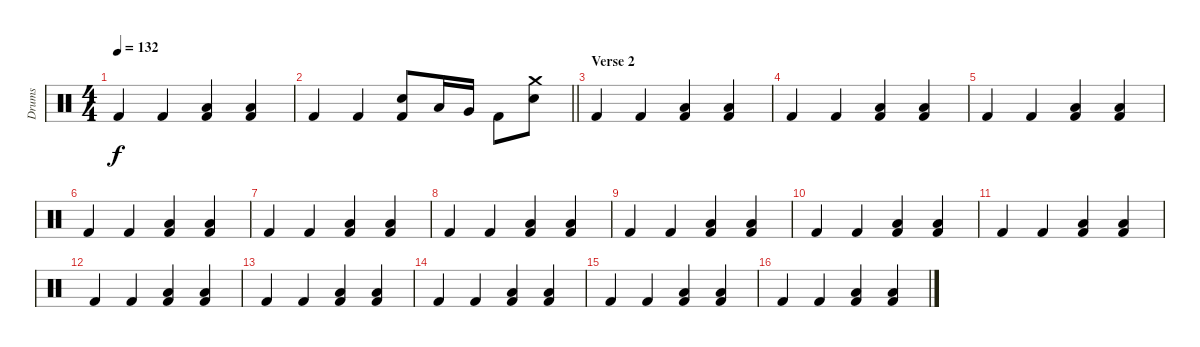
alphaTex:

\track ("Drums" "Drums") {instrument percussion}
\staff {score}
\articulation defaults
\ts (4 4)
\tempo 132
\clef neutral
\ks c "Kick (hit) 2".4{dy f} "Kick (hit) 2".4
("Low Tom (hit)" "Kick (hit) 2").4 ("Low Floor Tom (hit)" "Kick (hit) 2").4 |
\barLineRight lightlight "Kick (hit) 2".4 "Kick (hit) 2".4
("Snare (hit) 2" "Kick (hit) 2").8 "Low Floor Tom (hit)".16 "Very Low Tom (hit)".16 "Kick (hit) 2".8 ("Crash medium (hit)" "Snare (hit) 2").8 |
\section ("" "Verse 2")
"Kick (hit) 2".4 "Kick (hit) 2".4 ("Low Tom (hit)" "Kick (hit) 2").4 ("Low Floor Tom (hit)" "Kick (hit) 2").4 |
"Kick (hit) 2".4 "Kick (hit) 2".4 ("Low Tom (hit)" "Kick (hit) 2").4 ("Low Floor Tom (hit)" "Kick (hit) 2").4 |
"Kick (hit) 2".4 "Kick (hit) 2".4 ("Low Tom (hit)" "Kick (hit) 2").4 ("Low Floor Tom (hit)" "Kick (hit) 2").4 |
"Kick (hit) 2".4 "Kick (hit) 2".4 ("Low Tom (hit)" "Kick (hit) 2").4 ("Low Floor Tom (hit)" "Kick (hit) 2").4 |
"Kick (hit) 2".4 "Kick (hit) 2".4 ("Low Tom (hit)" "Kick (hit) 2").4 ("Low Floor Tom (hit)" "Kick (hit) 2").4 |
"Kick (hit) 2".4 "Kick (hit) 2".4 ("Low Tom (hit)" "Kick (hit) 2").4 ("Low Floor Tom (hit)" "Kick (hit) 2").4 |
"Kick (hit) 2".4 "Kick (hit) 2".4 ("Low Tom (hit)" "Kick (hit) 2").4 ("Low Floor Tom (hit)" "Kick (hit) 2").4 |
"Kick (hit) 2".4 "Kick (hit) 2".4 ("Low Tom (hit)" "Kick (hit) 2").4 ("Low Floor Tom (hit)" "Kick (hit) 2").4 |
"Kick (hit) 2".4 "Kick (hit) 2".4 ("Low Tom (hit)" "Kick (hit) 2").4 ("Low Floor Tom (hit)" "Kick (hit) 2").4 |
"Kick (hit) 2".4 "Kick (hit) 2".4 ("Low Tom (hit)" "Kick (hit) 2").4 ("Low Floor Tom (hit)" "Kick (hit) 2").4 |
"Kick (hit) 2".4 "Kick (hit) 2".4 ("Low Tom (hit)" "Kick (hit) 2").4 ("Low Floor Tom (hit)" "Kick (hit) 2").4 |
"Kick (hit) 2".4 "Kick (hit) 2".4 ("Low Tom (hit)" "Kick (hit) 2").4 ("Low Floor Tom (hit)" "Kick (hit) 2").4 |
"Kick (hit) 2".4 "Kick (hit) 2".4 ("Low Tom (hit)" "Kick (hit) 2").4 ("Low Floor Tom (hit)" "Kick (hit) 2").4 |
"Kick (hit) 2".4 "Kick (hit) 2".4 ("Low Tom (hit)" "Kick (hit) 2").4 ("Low Floor Tom (hit)" "Kick (hit) 2").4
